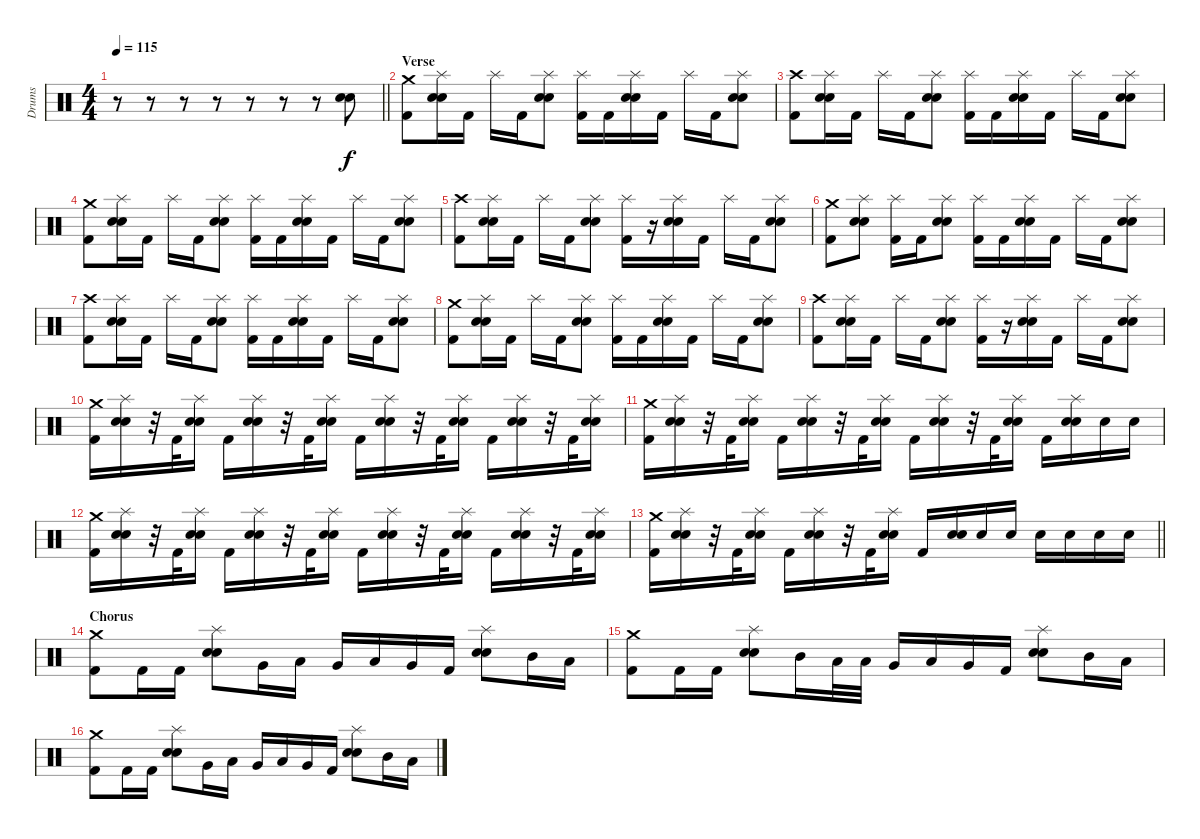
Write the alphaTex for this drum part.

\track ("Drums" "Drums") {instrument percussion}
\staff {score}
\articulation defaults
\ts (4 4)
\tempo 115
\clef neutral
\barLineRight lightlight
\ks c
r.8{dy f} r.8 r.8 r.8 r.8 r.8 r.8 ("Electric Snare (hit)" "Snare (hit) 2").8 |
\section ("" "Verse")
("Crash medium (hit)" "Kick (hit) 2").8 ("Splash (hit)" "Electric Snare (hit)" "Snare (hit) 2").16 "Kick (hit) 2".16 "Splash (hit)".16 "Kick (hit) 2".16 ("Splash (hit)" "Electric Snare (hit)" "Snare (hit) 2").8 ("Splash (hit)" "Kick (hit) 2").16 "Kick (hit) 2".16 ("Splash (hit)" "Electric Snare (hit)" "Snare (hit) 2").16 "Kick (hit) 2".16 "Splash (hit)".16 "Kick (hit) 2".16 ("Splash (hit)" "Electric Snare (hit)" "Snare (hit) 2").8 |
("Crash high (hit)" "Kick (hit) 2").8 ("Splash (hit)" "Electric Snare (hit)" "Snare (hit) 2").16 "Kick (hit) 2".16 "Splash (hit)".16 "Kick (hit) 2".16 ("Splash (hit)" "Electric Snare (hit)" "Snare (hit) 2").8 ("Splash (hit)" "Kick (hit) 2").16 "Kick (hit) 2".16 ("Splash (hit)" "Electric Snare (hit)" "Snare (hit) 2").16 "Kick (hit) 2".16 "Splash (hit)".16 "Kick (hit) 2".16 ("Splash (hit)" "Electric Snare (hit)" "Snare (hit) 2").8 |
("Crash medium (hit)" "Kick (hit) 2").8 ("Splash (hit)" "Electric Snare (hit)" "Snare (hit) 2").16 "Kick (hit) 2".16 "Splash (hit)".16 "Kick (hit) 2".16 ("Splash (hit)" "Electric Snare (hit)" "Snare (hit) 2").8 ("Splash (hit)" "Kick (hit) 2").16 "Kick (hit) 2".16 ("Splash (hit)" "Electric Snare (hit)" "Snare (hit) 2").16 "Kick (hit) 2".16 "Splash (hit)".16 "Kick (hit) 2".16 ("Splash (hit)" "Electric Snare (hit)" "Snare (hit) 2").8 |
("Crash high (hit)" "Kick (hit) 2").8 ("Splash (hit)" "Electric Snare (hit)" "Snare (hit) 2").16 "Kick (hit) 2".16 "Splash (hit)".16 "Kick (hit) 2".16 ("Splash (hit)" "Electric Snare (hit)" "Snare (hit) 2").8 ("Splash (hit)" "Kick (hit) 2").16 r.16 ("Splash (hit)" "Electric Snare (hit)" "Snare (hit) 2").16 "Kick (hit) 2".16 "Splash (hit)".16 "Kick (hit) 2".16 ("Splash (hit)" "Electric Snare (hit)" "Snare (hit) 2").8 |
("Crash medium (hit)" "Kick (hit) 2").8 ("Splash (hit)" "Electric Snare (hit)" "Snare (hit) 2").8 ("Splash (hit)" "Kick (hit) 2").16 "Kick (hit) 2".16 ("Splash (hit)" "Electric Snare (hit)" "Snare (hit) 2").8 ("Splash (hit)" "Kick (hit) 2").16 "Kick (hit) 2".16 ("Splash (hit)" "Electric Snare (hit)" "Snare (hit) 2").16 "Kick (hit) 2".16 "Splash (hit)".16 "Kick (hit) 2".16 ("Splash (hit)" "Electric Snare (hit)" "Snare (hit) 2").8 |
("Crash high (hit)" "Kick (hit) 2").8 ("Splash (hit)" "Electric Snare (hit)" "Snare (hit) 2").16 "Kick (hit) 2".16 "Splash (hit)".16 "Kick (hit) 2".16 ("Splash (hit)" "Electric Snare (hit)" "Snare (hit) 2").8 ("Splash (hit)" "Kick (hit) 2").16 "Kick (hit) 2".16 ("Splash (hit)" "Electric Snare (hit)" "Snare (hit) 2").16 "Kick (hit) 2".16 "Splash (hit)".16 "Kick (hit) 2".16 ("Splash (hit)" "Electric Snare (hit)" "Snare (hit) 2").8 |
("Crash medium (hit)" "Kick (hit) 2").8 ("Splash (hit)" "Electric Snare (hit)" "Snare (hit) 2").16 "Kick (hit) 2".16 "Splash (hit)".16 "Kick (hit) 2".16 ("Splash (hit)" "Electric Snare (hit)" "Snare (hit) 2").8 ("Splash (hit)" "Kick (hit) 2").16 "Kick (hit) 2".16 ("Splash (hit)" "Electric Snare (hit)" "Snare (hit) 2").16 "Kick (hit) 2".16 "Splash (hit)".16 "Kick (hit) 2".16 ("Splash (hit)" "Electric Snare (hit)" "Snare (hit) 2").8 |
("Crash high (hit)" "Kick (hit) 2").8 ("Splash (hit)" "Electric Snare (hit)" "Snare (hit) 2").16 "Kick (hit) 2".16 "Splash (hit)".16 "Kick (hit) 2".16 ("Splash (hit)" "Electric Snare (hit)" "Snare (hit) 2").8 ("Splash (hit)" "Kick (hit) 2").16 r.16 ("Splash (hit)" "Electric Snare (hit)" "Snare (hit) 2").16 "Kick (hit) 2".16 "Splash (hit)".16 "Kick (hit) 2".16 ("Splash (hit)" "Electric Snare (hit)" "Snare (hit) 2").8 |
("Crash medium (hit)" "Kick (hit) 2").16 ("Splash (hit)" "Electric Snare (hit)" "Snare (hit) 2").16 r.32 "Kick (hit) 2".32 ("Splash (hit)" "Electric Snare (hit)" "Snare (hit) 2").16 "Kick (hit) 2".16 ("Splash (hit)" "Electric Snare (hit)" "Snare (hit) 2").16 r.32 "Kick (hit) 2".32 ("Splash (hit)" "Electric Snare (hit)" "Snare (hit) 2").16 "Kick (hit) 2".16 ("Splash (hit)" "Electric Snare (hit)" "Snare (hit) 2").16 r.32 "Kick (hit) 2".32 ("Splash (hit)" "Electric Snare (hit)" "Snare (hit) 2").16 "Kick (hit) 2".16 ("Splash (hit)" "Electric Snare (hit)" "Snare (hit) 2").16 r.32 "Kick (hit) 2".32 ("Splash (hit)" "Electric Snare (hit)" "Snare (hit) 2").16 |
("Crash medium (hit)" "Kick (hit) 2").16 ("Splash (hit)" "Electric Snare (hit)" "Snare (hit) 2").16 r.32 "Kick (hit) 2".32 ("Splash (hit)" "Electric Snare (hit)" "Snare (hit) 2").16 "Kick (hit) 2".16 ("Splash (hit)" "Electric Snare (hit)" "Snare (hit) 2").16 r.32 "Kick (hit) 2".32 ("Splash (hit)" "Electric Snare (hit)" "Snare (hit) 2").16 "Kick (hit) 2".16 ("Splash (hit)" "Electric Snare (hit)" "Snare (hit) 2").16 r.32 "Kick (hit) 2".32 ("Splash (hit)" "Electric Snare (hit)" "Snare (hit) 2").16 "Kick (hit) 2".16 ("Splash (hit)" "Electric Snare (hit)" "Snare (hit) 2").16 "Electric Snare (hit)".16 "Electric Snare (hit)".16 |
("Crash medium (hit)" "Kick (hit) 2").16 ("Splash (hit)" "Electric Snare (hit)" "Snare (hit) 2").16 r.32 "Kick (hit) 2".32 ("Splash (hit)" "Electric Snare (hit)" "Snare (hit) 2").16 "Kick (hit) 2".16 ("Splash (hit)" "Electric Snare (hit)" "Snare (hit) 2").16 r.32 "Kick (hit) 2".32 ("Splash (hit)" "Electric Snare (hit)" "Snare (hit) 2").16 "Kick (hit) 2".16 ("Splash (hit)" "Electric Snare (hit)" "Snare (hit) 2").16 r.32 "Kick (hit) 2".32 ("Splash (hit)" "Electric Snare (hit)" "Snare (hit) 2").16 "Kick (hit) 2".16 ("Splash (hit)" "Electric Snare (hit)" "Snare (hit) 2").16 r.32 "Kick (hit) 2".32 ("Splash (hit)" "Electric Snare (hit)" "Snare (hit) 2").16 |
\barLineRight lightlight
("Crash medium (hit)" "Kick (hit) 2").16 ("Splash (hit)" "Electric Snare (hit)" "Snare (hit) 2").16 r.32 "Kick (hit) 2".32 ("Splash (hit)" "Electric Snare (hit)" "Snare (hit) 2").16 "Kick (hit) 2".16 ("Splash (hit)" "Electric Snare (hit)" "Snare (hit) 2").16 r.32 "Kick (hit) 2".32 ("Splash (hit)" "Electric Snare (hit)" "Snare (hit) 2").16 "Kick (hit) 2".16 ("Electric Snare (hit)" "Snare (hit) 2").16 "Electric Snare (hit)".16 "Electric Snare (hit)".16 "Electric Snare (hit)".16 "Electric Snare (hit)".16 "Electric Snare (hit)".16 "Electric Snare (hit)".16 |
\section ("" "Chorus")
("Crash medium (hit)" "Kick (hit) 2").8 "Kick (hit) 2".16 "Kick (hit) 2".16 ("Splash (hit)" "Electric Snare (hit)" "Snare (hit) 2").8 "Very Low Tom (hit)".16 "Low Tom (hit)".16 "Very Low Tom (hit)".16 "Low Tom (hit)".16 "Very Low Tom (hit)".16 "Kick (hit) 2".16 ("Splash (hit)" "Electric Snare (hit)" "Snare (hit) 2").8 "Mid Tom (hit)".16 "Low Tom (hit)".16 |
("Crash medium (hit)" "Kick (hit) 2").8 "Kick (hit) 2".16 "Kick (hit) 2".16 ("Splash (hit)" "Electric Snare (hit)" "Snare (hit) 2").8 "Mid Tom (hit)".16 "Low Tom (hit)".32 "Low Tom (hit)".32 "Very Low Tom (hit)".16 "Low Tom (hit)".16 "Very Low Tom (hit)".16 "Kick (hit) 2".16 ("Splash (hit)" "Electric Snare (hit)" "Snare (hit) 2").8 "Mid Tom (hit)".16 "Low Tom (hit)".16 |
("Crash medium (hit)" "Kick (hit) 2").8 "Kick (hit) 2".16 "Kick (hit) 2".16 ("Splash (hit)" "Electric Snare (hit)" "Snare (hit) 2").8 "Very Low Tom (hit)".16 "Low Tom (hit)".16 "Very Low Tom (hit)".16 "Low Tom (hit)".16 "Very Low Tom (hit)".16 "Kick (hit) 2".16 ("Splash (hit)" "Electric Snare (hit)" "Snare (hit) 2").8 "Mid Tom (hit)".16 "Low Tom (hit)".16
